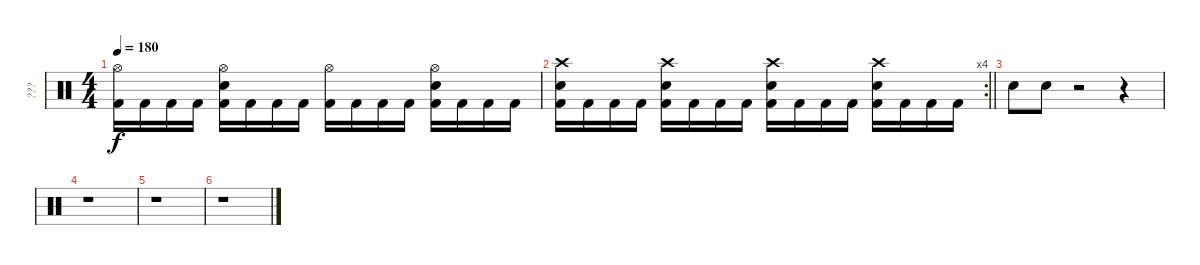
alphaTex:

\track ("???" "???") {instrument percussion}
\staff {score}
\articulation defaults
\ts (4 4)
\tempo 180
\clef neutral
\ks c
("Hi-Hat (open)" "Kick (hit) 2").16{dy f} "Kick (hit) 2".16 "Kick (hit) 2".16 "Kick (hit) 2".16 ("Hi-Hat (open)" "Kick (hit) 2" "Snare (hit) 2").16 "Kick (hit) 2".16 "Kick (hit) 2".16 "Kick (hit) 2".16 ("Hi-Hat (open)" "Kick (hit) 2").16 "Kick (hit) 2".16 "Kick (hit) 2".16 "Kick (hit) 2".16 ("Hi-Hat (open)" "Kick (hit) 2" "Snare (hit) 2").16 "Kick (hit) 2".16 "Kick (hit) 2".16 "Kick (hit) 2".16 |
\rc 4
\barLineRight lightlight
("Crash high (hit)" "Kick (hit) 2" "Snare (hit) 2").16 "Kick (hit) 2".16 "Kick (hit) 2".16 "Kick (hit) 2".16 ("Crash high (hit)" "Kick (hit) 2" "Snare (hit) 2").16 "Kick (hit) 2".16 "Kick (hit) 2".16 "Kick (hit) 2".16 ("Crash high (hit)" "Kick (hit) 2" "Snare (hit) 2").16 "Kick (hit) 2".16 "Kick (hit) 2".16 "Kick (hit) 2".16 ("Crash high (hit)" "Kick (hit) 2" "Snare (hit) 2").16 "Kick (hit) 2".16 "Kick (hit) 2".16 "Kick (hit) 2".16 |
"Snare (hit) 2".8 "Snare (hit) 2".8 r.2 r.4 |
r.1 |
r.1 |
r.1
